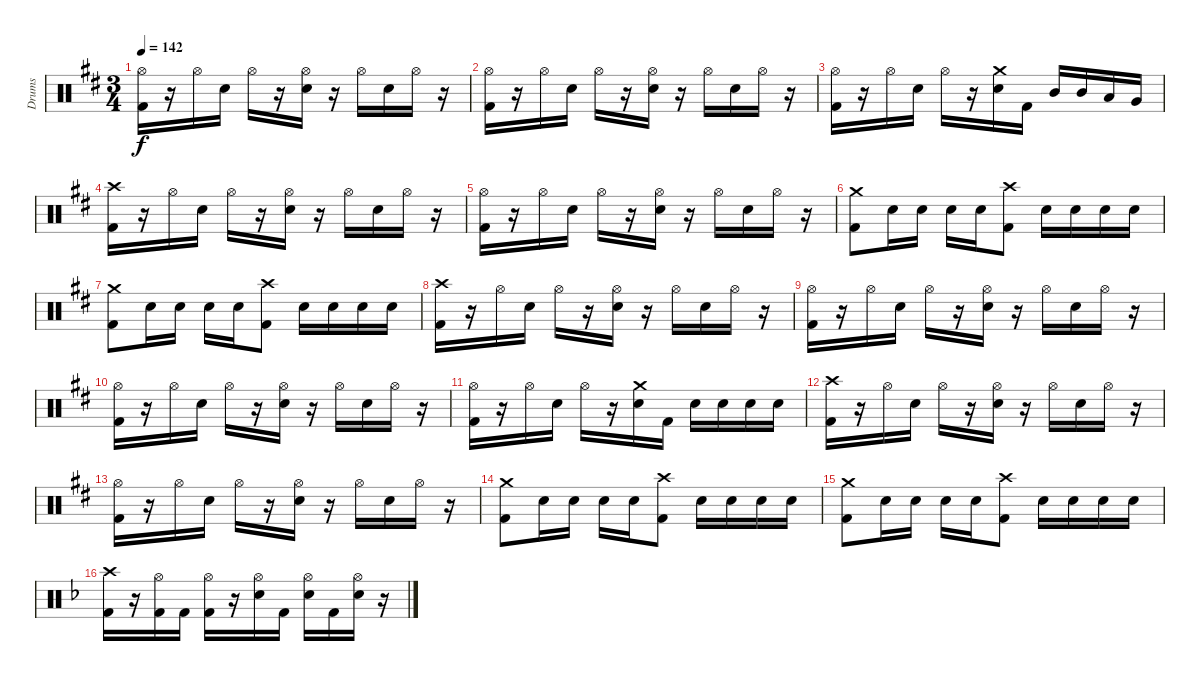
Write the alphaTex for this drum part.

\track ("Drums" "Drums") {instrument percussion}
\staff {score}
\articulation defaults
\ts (3 4)
\tempo 142
\clef neutral
\ks d
("Hi-Hat (open)" "Kick (hit) 2").16{dy f} r.16 "Hi-Hat (open)".16 "Electric Snare (hit)".16 "Hi-Hat (open)".16 r.16 ("Hi-Hat (open)" "Electric Snare (hit)").16 r.16 "Hi-Hat (open)".16 "Electric Snare (hit)".16 "Hi-Hat (open)".16 r.16 |
("Hi-Hat (open)" "Kick (hit) 2").16 r.16 "Hi-Hat (open)".16 "Electric Snare (hit)".16 "Hi-Hat (open)".16 r.16 ("Hi-Hat (open)" "Electric Snare (hit)").16 r.16 "Hi-Hat (open)".16 "Electric Snare (hit)".16 "Hi-Hat (open)".16 r.16 |
("Hi-Hat (open)" "Kick (hit) 2").16 r.16 "Hi-Hat (open)".16 "Electric Snare (hit)".16 "Hi-Hat (open)".16 r.16 ("Crash medium (hit)" "Electric Snare (hit)").16 "Kick (hit) 2".16 "Mid Tom (hit)".16 "Mid Tom (hit)".16 "Low Tom (hit)".16 "Very Low Tom (hit)".16 |
("Crash high (hit)" "Kick (hit) 2").16 r.16 "Hi-Hat (open)".16 "Electric Snare (hit)".16 "Hi-Hat (open)".16 r.16 ("Hi-Hat (open)" "Electric Snare (hit)").16 r.16 "Hi-Hat (open)".16 "Electric Snare (hit)".16 "Hi-Hat (open)".16 r.16 |
("Hi-Hat (open)" "Kick (hit) 2").16 r.16 "Hi-Hat (open)".16 "Electric Snare (hit)".16 "Hi-Hat (open)".16 r.16 ("Hi-Hat (open)" "Electric Snare (hit)").16 r.16 "Hi-Hat (open)".16 "Electric Snare (hit)".16 "Hi-Hat (open)".16 r.16 |
("Crash medium (hit)" "Kick (hit) 2").8 "Electric Snare (hit)".16 "Electric Snare (hit)".16 "Electric Snare (hit)".16 "Electric Snare (hit)".16 ("Crash high (hit)" "Kick (hit) 2").8 "Electric Snare (hit)".16 "Electric Snare (hit)".16 "Electric Snare (hit)".16 "Electric Snare (hit)".16 |
("Crash medium (hit)" "Kick (hit) 2").8 "Electric Snare (hit)".16 "Electric Snare (hit)".16 "Electric Snare (hit)".16 "Electric Snare (hit)".16 ("Crash high (hit)" "Kick (hit) 2").8 "Electric Snare (hit)".16 "Electric Snare (hit)".16 "Electric Snare (hit)".16 "Electric Snare (hit)".16 |
("Crash high (hit)" "Kick (hit) 2").16 r.16 "Hi-Hat (open)".16 "Electric Snare (hit)".16 "Hi-Hat (open)".16 r.16 ("Hi-Hat (open)" "Electric Snare (hit)").16 r.16 "Hi-Hat (open)".16 "Electric Snare (hit)".16 "Hi-Hat (open)".16 r.16 |
("Hi-Hat (open)" "Kick (hit) 2").16 r.16 "Hi-Hat (open)".16 "Electric Snare (hit)".16 "Hi-Hat (open)".16 r.16 ("Hi-Hat (open)" "Electric Snare (hit)").16 r.16 "Hi-Hat (open)".16 "Electric Snare (hit)".16 "Hi-Hat (open)".16 r.16 |
("Hi-Hat (open)" "Kick (hit) 2").16 r.16 "Hi-Hat (open)".16 "Electric Snare (hit)".16 "Hi-Hat (open)".16 r.16 ("Hi-Hat (open)" "Electric Snare (hit)").16 r.16 "Hi-Hat (open)".16 "Electric Snare (hit)".16 "Hi-Hat (open)".16 r.16 |
("Hi-Hat (open)" "Kick (hit) 2").16 r.16 "Hi-Hat (open)".16 "Electric Snare (hit)".16 "Hi-Hat (open)".16 r.16 ("Crash medium (hit)" "Electric Snare (hit)").16 "Kick (hit) 2".16 "Electric Snare (hit)".16 "Electric Snare (hit)".16 "Electric Snare (hit)".16 "Electric Snare (hit)".16 |
("Crash high (hit)" "Kick (hit) 2").16 r.16 "Hi-Hat (open)".16 "Electric Snare (hit)".16 "Hi-Hat (open)".16 r.16 ("Hi-Hat (open)" "Electric Snare (hit)").16 r.16 "Hi-Hat (open)".16 "Electric Snare (hit)".16 "Hi-Hat (open)".16 r.16 |
("Hi-Hat (open)" "Kick (hit) 2").16 r.16 "Hi-Hat (open)".16 "Electric Snare (hit)".16 "Hi-Hat (open)".16 r.16 ("Hi-Hat (open)" "Electric Snare (hit)").16 r.16 "Hi-Hat (open)".16 "Electric Snare (hit)".16 "Hi-Hat (open)".16 r.16 |
("Crash medium (hit)" "Kick (hit) 2").8 "Electric Snare (hit)".16 "Electric Snare (hit)".16 "Electric Snare (hit)".16 "Electric Snare (hit)".16 ("Crash high (hit)" "Kick (hit) 2").8 "Electric Snare (hit)".16 "Electric Snare (hit)".16 "Electric Snare (hit)".16 "Electric Snare (hit)".16 |
("Crash medium (hit)" "Kick (hit) 2").8 "Electric Snare (hit)".16 "Electric Snare (hit)".16 "Electric Snare (hit)".16 "Electric Snare (hit)".16 ("Crash high (hit)" "Kick (hit) 2").8 "Electric Snare (hit)".16 "Electric Snare (hit)".16 "Electric Snare (hit)".16 "Electric Snare (hit)".16 |
\ks dminor
("Crash high (hit)" "Kick (hit) 2").16 r.16 ("Hi-Hat (open)" "Kick (hit) 2").16 "Kick (hit) 2".16 ("Hi-Hat (open)" "Kick (hit) 2").16 r.16 ("Hi-Hat (open)" "Electric Snare (hit)").16 "Kick (hit) 2".16 ("Hi-Hat (open)" "Electric Snare (hit)").16 "Kick (hit) 2".16 ("Hi-Hat (open)" "Electric Snare (hit)").16 r.16
